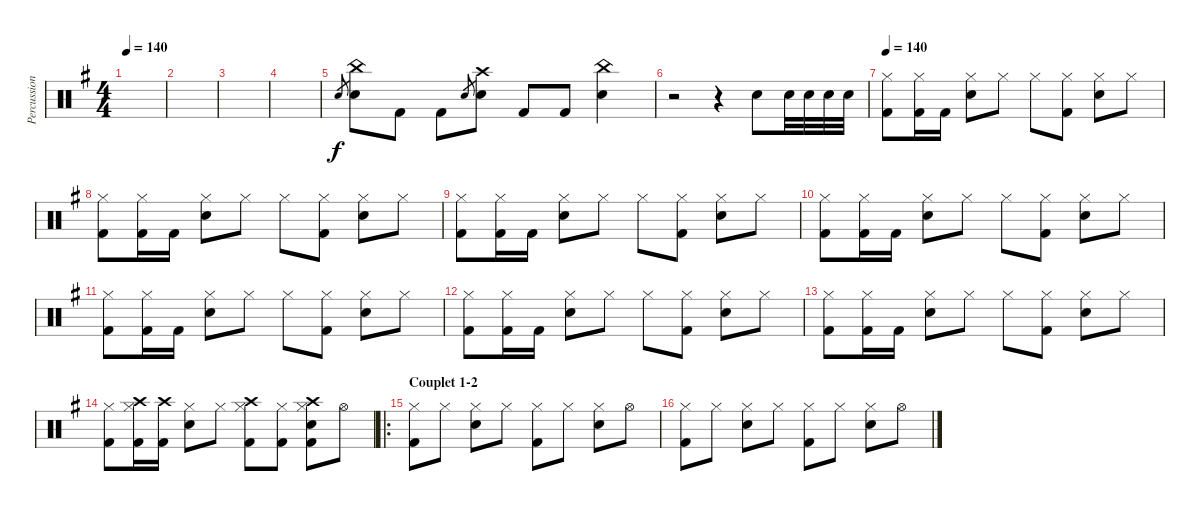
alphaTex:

\track ("Percussions" "Percussion") {instrument percussion}
\staff {score}
\articulation defaults
\ts (4 4)
\tempo 140
\clef neutral
\ks g
|
|
|
|
"Snare (hit) 2".8{gr} ("Snare (hit) 2" "China (hit)").8 "Kick (hit) 2".8 "Kick (hit) 2".8 "Snare (hit) 2".8{gr} ("Snare (hit) 2" "Crash high (hit)").8 "Kick (hit) 2".8 "Kick (hit) 2".8 ("Snare (hit) 2" "China (hit)").4 |
r.2 r.4 "Snare (hit) 2".8 "Snare (hit) 2".32 "Snare (hit) 2".32 "Snare (hit) 2".32 "Snare (hit) 2".32 |
\tempo 140
("Hi-Hat (closed)" "Kick (hit) 2").8 ("Hi-Hat (closed)" "Kick (hit) 2").16 "Kick (hit) 2".16 ("Hi-Hat (closed)" "Snare (hit) 2").8 "Hi-Hat (closed)".8 "Hi-Hat (closed)".8 ("Hi-Hat (closed)" "Kick (hit) 2").8 ("Hi-Hat (closed)" "Snare (hit) 2").8 "Hi-Hat (closed)".8 |
("Hi-Hat (closed)" "Kick (hit) 2").8 ("Hi-Hat (closed)" "Kick (hit) 2").16 "Kick (hit) 2".16 ("Hi-Hat (closed)" "Snare (hit) 2").8 "Hi-Hat (closed)".8 "Hi-Hat (closed)".8 ("Hi-Hat (closed)" "Kick (hit) 2").8 ("Hi-Hat (closed)" "Snare (hit) 2").8 "Hi-Hat (closed)".8 |
("Hi-Hat (closed)" "Kick (hit) 2").8 ("Hi-Hat (closed)" "Kick (hit) 2").16 "Kick (hit) 2".16 ("Hi-Hat (closed)" "Snare (hit) 2").8 "Hi-Hat (closed)".8 "Hi-Hat (closed)".8 ("Hi-Hat (closed)" "Kick (hit) 2").8 ("Hi-Hat (closed)" "Snare (hit) 2").8 "Hi-Hat (closed)".8 |
("Hi-Hat (closed)" "Kick (hit) 2").8 ("Hi-Hat (closed)" "Kick (hit) 2").16 "Kick (hit) 2".16 ("Hi-Hat (closed)" "Snare (hit) 2").8 "Hi-Hat (closed)".8 "Hi-Hat (closed)".8 ("Hi-Hat (closed)" "Kick (hit) 2").8 ("Hi-Hat (closed)" "Snare (hit) 2").8 "Hi-Hat (closed)".8 |
("Hi-Hat (closed)" "Kick (hit) 2").8 ("Hi-Hat (closed)" "Kick (hit) 2").16 "Kick (hit) 2".16 ("Hi-Hat (closed)" "Snare (hit) 2").8 "Hi-Hat (closed)".8 "Hi-Hat (closed)".8 ("Hi-Hat (closed)" "Kick (hit) 2").8 ("Hi-Hat (closed)" "Snare (hit) 2").8 "Hi-Hat (closed)".8 |
("Hi-Hat (closed)" "Kick (hit) 2").8 ("Hi-Hat (closed)" "Kick (hit) 2").16 "Kick (hit) 2".16 ("Hi-Hat (closed)" "Snare (hit) 2").8 "Hi-Hat (closed)".8 "Hi-Hat (closed)".8 ("Hi-Hat (closed)" "Kick (hit) 2").8 ("Hi-Hat (closed)" "Snare (hit) 2").8 "Hi-Hat (closed)".8 |
("Hi-Hat (closed)" "Kick (hit) 2").8 ("Hi-Hat (closed)" "Kick (hit) 2").16 "Kick (hit) 2".16 ("Hi-Hat (closed)" "Snare (hit) 2").8 "Hi-Hat (closed)".8 "Hi-Hat (closed)".8 ("Hi-Hat (closed)" "Kick (hit) 2").8 ("Hi-Hat (closed)" "Snare (hit) 2").8 "Hi-Hat (closed)".8 |
("Hi-Hat (closed)" "Kick (hit) 2").8 ("Crash high (hit)" "Hi-Hat (closed)" "Kick (hit) 2").16 ("Crash high (hit)" "Kick (hit) 2").16 ("Hi-Hat (closed)" "Snare (hit) 2").8 "Hi-Hat (closed)".8 ("Crash high (hit)" "Hi-Hat (closed)" "Kick (hit) 2").8 ("Hi-Hat (closed)" "Kick (hit) 2").8 ("Crash high (hit)" "Hi-Hat (closed)" "Snare (hit) 2" "Kick (hit) 2").8 "Hi-Hat (open)".8 |
\ro
\section ("" "Couplet 1-2")
("Hi-Hat (closed)" "Kick (hit) 2").8 "Hi-Hat (closed)".8 ("Hi-Hat (closed)" "Snare (hit) 2").8 "Hi-Hat (closed)".8 ("Hi-Hat (closed)" "Kick (hit) 2").8 "Hi-Hat (closed)".8 ("Hi-Hat (closed)" "Snare (hit) 2").8 "Hi-Hat (open)".8 |
("Hi-Hat (closed)" "Kick (hit) 2").8 "Hi-Hat (closed)".8 ("Hi-Hat (closed)" "Snare (hit) 2").8 "Hi-Hat (closed)".8 ("Hi-Hat (closed)" "Kick (hit) 2").8 "Hi-Hat (closed)".8 ("Hi-Hat (closed)" "Snare (hit) 2").8 "Hi-Hat (open)".8
